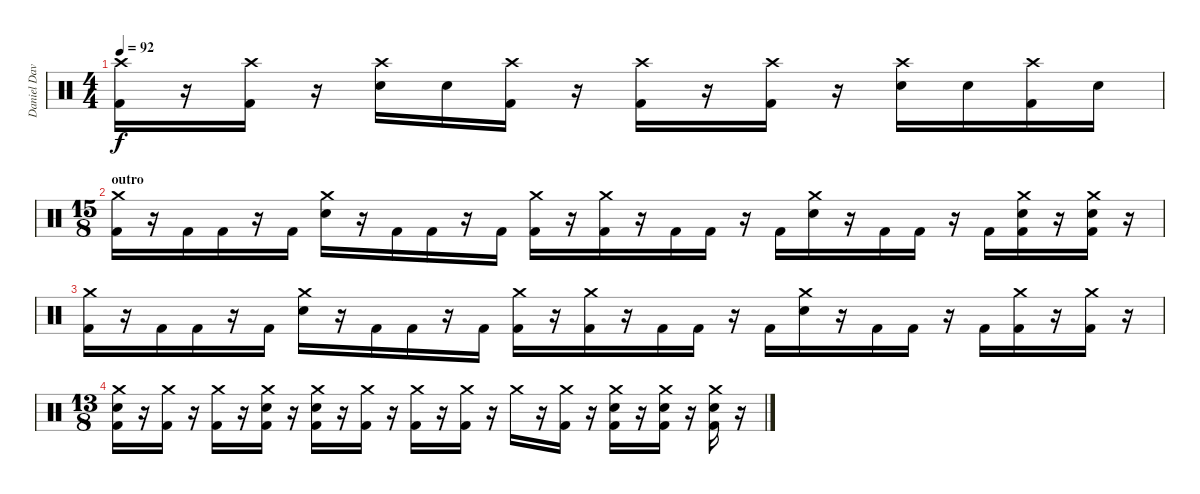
\track ("Daniel Davison" "Daniel Dav") {instrument percussion}
\staff {score}
\articulation defaults
\ts (4 4)
\tempo 92
\clef neutral
\ks c
("Crash high (hit)" "Kick (hit) 2").16{dy f volume 13} r.16 ("Crash high (hit)" "Kick (hit) 2").16 r.16 ("Crash high (hit)" "Electric Snare (hit)").16 "Electric Snare (hit)".16 ("Crash high (hit)" "Kick (hit) 2").16 r.16 ("Crash high (hit)" "Kick (hit) 2").16 r.16 ("Crash high (hit)" "Kick (hit) 2").16 r.16 ("Crash high (hit)" "Electric Snare (hit)").16 "Electric Snare (hit)".16 ("Crash high (hit)" "Kick (hit) 2").16 "Electric Snare (hit)".16 |
\ts (15 8)
\section ("" "outro")
("Crash medium (hit)" "Kick (hit) 2").16 r.16 "Kick (hit) 2".16 "Kick (hit) 2".16 r.16 "Kick (hit) 2".16 ("Crash medium (hit)" "Electric Snare (hit)").16 r.16 "Kick (hit) 2".16 "Kick (hit) 2".16 r.16 "Kick (hit) 2".16 ("Crash medium (hit)" "Kick (hit) 2").16 r.16 ("Crash medium (hit)" "Kick (hit) 2").16 r.16 "Kick (hit) 2".16 "Kick (hit) 2".16 r.16 "Kick (hit) 2".16 ("Crash medium (hit)" "Electric Snare (hit)").16 r.16 "Kick (hit) 2".16 "Kick (hit) 2".16 r.16 "Kick (hit) 2".16 ("Crash medium (hit)" "Electric Snare (hit)" "Kick (hit) 2").16 r.16 ("Crash medium (hit)" "Electric Snare (hit)" "Kick (hit) 2").16 r.16 |
("Crash medium (hit)" "Kick (hit) 2").16 r.16 "Kick (hit) 2".16 "Kick (hit) 2".16 r.16 "Kick (hit) 2".16 ("Crash medium (hit)" "Electric Snare (hit)").16 r.16 "Kick (hit) 2".16 "Kick (hit) 2".16 r.16 "Kick (hit) 2".16 ("Crash medium (hit)" "Kick (hit) 2").16 r.16 ("Crash medium (hit)" "Kick (hit) 2").16 r.16 "Kick (hit) 2".16 "Kick (hit) 2".16 r.16 "Kick (hit) 2".16 ("Crash medium (hit)" "Electric Snare (hit)").16 r.16 "Kick (hit) 2".16 "Kick (hit) 2".16 r.16 "Kick (hit) 2".16 ("Crash medium (hit)" "Kick (hit) 2").16 r.16 ("Crash medium (hit)" "Kick (hit) 2").16 r.16 |
\ts (13 8)
("Crash medium (hit)" "Electric Snare (hit)" "Kick (hit) 2").16 r.16 ("Crash medium (hit)" "Kick (hit) 2").16 r.16 ("Crash medium (hit)" "Kick (hit) 2").16 r.16 ("Crash medium (hit)" "Electric Snare (hit)" "Kick (hit) 2").16 r.16 ("Crash medium (hit)" "Electric Snare (hit)" "Kick (hit) 2").16 r.16 ("Crash medium (hit)" "Kick (hit) 2").16 r.16 ("Crash medium (hit)" "Kick (hit) 2").16 r.16 ("Crash medium (hit)" "Kick (hit) 2").16 r.16 "Crash medium (hit)".16 r.16 ("Crash medium (hit)" "Kick (hit) 2").16 r.16 ("Crash medium (hit)" "Electric Snare (hit)" "Kick (hit) 2").16 r.16 ("Crash medium (hit)" "Electric Snare (hit)" "Kick (hit) 2").16 r.16 ("Crash medium (hit)" "Electric Snare (hit)" "Kick (hit) 2").16 r.16
